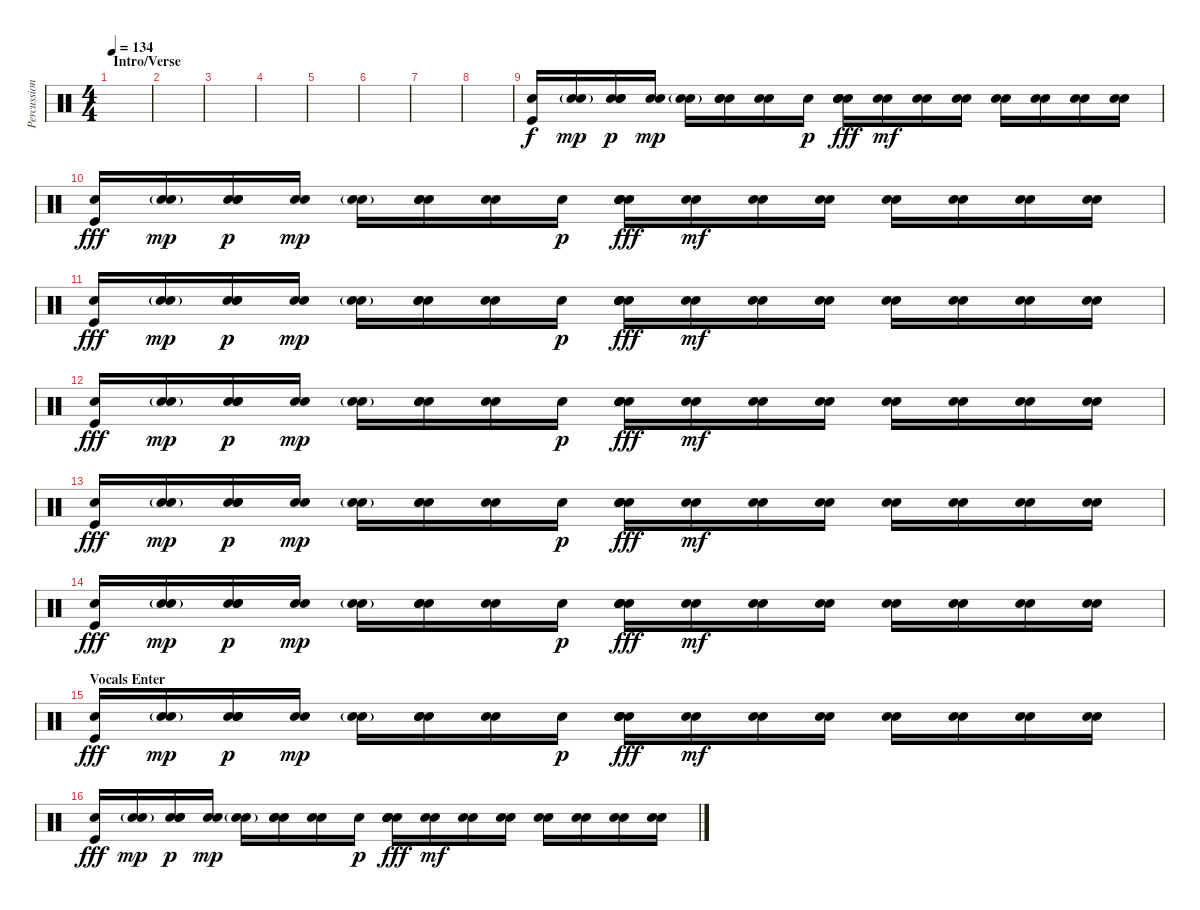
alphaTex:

\track ("Percussion" "Percussion") {instrument percussion}
\staff {score}
\articulation defaults
\ts (4 4)
\section ("" "Intro/Verse")
\tempo 134
\clef neutral
\ks c
|
|
|
|
|
|
|
|
("Electric Snare (hit)" "Kick (hit)").16 ("Electric Snare (hit)" "Electric Snare (hit)"{g}).16{dy mp} ("Electric Snare (hit)" "Electric Snare (hit)" "Snare (hit) 2").16{dy p} ("Electric Snare (hit)" "Snare (hit) 2").16{dy mp} ("Electric Snare (hit)" "Electric Snare (hit)"{g}).16 ("Electric Snare (hit)" "Electric Snare (hit)" "Snare (hit) 2").16 ("Electric Snare (hit)" "Snare (hit) 2").16 "Electric Snare (hit)".16{dy p} ("Electric Snare (hit)" "Snare (hit) 2" "Snare (hit) 2" "Snare (hit) 2").16{dy fff} ("Electric Snare (hit)" "Snare (hit) 2").16{dy mf} ("Electric Snare (hit)" "Snare (hit) 2").16 ("Electric Snare (hit)" "Snare (hit) 2").16 ("Electric Snare (hit)" "Snare (hit) 2").16 ("Electric Snare (hit)" "Snare (hit) 2").16 ("Electric Snare (hit)" "Snare (hit) 2").16 ("Electric Snare (hit)" "Snare (hit) 2").16 |
("Electric Snare (hit)" "Kick (hit)").16{dy fff} ("Electric Snare (hit)" "Electric Snare (hit)"{g}).16{dy mp} ("Electric Snare (hit)" "Electric Snare (hit)" "Snare (hit) 2").16{dy p} ("Electric Snare (hit)" "Snare (hit) 2").16{dy mp} ("Electric Snare (hit)" "Electric Snare (hit)"{g}).16 ("Electric Snare (hit)" "Electric Snare (hit)" "Snare (hit) 2").16 ("Electric Snare (hit)" "Snare (hit) 2").16 "Electric Snare (hit)".16{dy p} ("Electric Snare (hit)" "Snare (hit) 2" "Snare (hit) 2" "Snare (hit) 2").16{dy fff} ("Electric Snare (hit)" "Snare (hit) 2").16{dy mf} ("Electric Snare (hit)" "Snare (hit) 2").16 ("Electric Snare (hit)" "Snare (hit) 2").16 ("Electric Snare (hit)" "Snare (hit) 2").16 ("Electric Snare (hit)" "Snare (hit) 2").16 ("Electric Snare (hit)" "Snare (hit) 2").16 ("Electric Snare (hit)" "Snare (hit) 2").16 |
("Electric Snare (hit)" "Kick (hit)").16{dy fff} ("Electric Snare (hit)" "Electric Snare (hit)"{g}).16{dy mp} ("Electric Snare (hit)" "Electric Snare (hit)" "Snare (hit) 2").16{dy p} ("Electric Snare (hit)" "Snare (hit) 2").16{dy mp} ("Electric Snare (hit)" "Electric Snare (hit)"{g}).16 ("Electric Snare (hit)" "Electric Snare (hit)" "Snare (hit) 2").16 ("Electric Snare (hit)" "Snare (hit) 2").16 "Electric Snare (hit)".16{dy p} ("Electric Snare (hit)" "Snare (hit) 2" "Snare (hit) 2" "Snare (hit) 2").16{dy fff} ("Electric Snare (hit)" "Snare (hit) 2").16{dy mf} ("Electric Snare (hit)" "Snare (hit) 2").16 ("Electric Snare (hit)" "Snare (hit) 2").16 ("Electric Snare (hit)" "Snare (hit) 2").16 ("Electric Snare (hit)" "Snare (hit) 2").16 ("Electric Snare (hit)" "Snare (hit) 2").16 ("Electric Snare (hit)" "Snare (hit) 2").16 |
("Electric Snare (hit)" "Kick (hit)").16{dy fff} ("Electric Snare (hit)" "Electric Snare (hit)"{g}).16{dy mp} ("Electric Snare (hit)" "Electric Snare (hit)" "Snare (hit) 2").16{dy p} ("Electric Snare (hit)" "Snare (hit) 2").16{dy mp} ("Electric Snare (hit)" "Electric Snare (hit)"{g}).16 ("Electric Snare (hit)" "Electric Snare (hit)" "Snare (hit) 2").16 ("Electric Snare (hit)" "Snare (hit) 2").16 "Electric Snare (hit)".16{dy p} ("Electric Snare (hit)" "Snare (hit) 2" "Snare (hit) 2" "Snare (hit) 2").16{dy fff} ("Electric Snare (hit)" "Snare (hit) 2").16{dy mf} ("Electric Snare (hit)" "Snare (hit) 2").16 ("Electric Snare (hit)" "Snare (hit) 2").16 ("Electric Snare (hit)" "Snare (hit) 2").16 ("Electric Snare (hit)" "Snare (hit) 2").16 ("Electric Snare (hit)" "Snare (hit) 2").16 ("Electric Snare (hit)" "Snare (hit) 2").16 |
("Electric Snare (hit)" "Kick (hit)").16{dy fff} ("Electric Snare (hit)" "Electric Snare (hit)"{g}).16{dy mp} ("Electric Snare (hit)" "Electric Snare (hit)" "Snare (hit) 2").16{dy p} ("Electric Snare (hit)" "Snare (hit) 2").16{dy mp} ("Electric Snare (hit)" "Electric Snare (hit)"{g}).16 ("Electric Snare (hit)" "Electric Snare (hit)" "Snare (hit) 2").16 ("Electric Snare (hit)" "Snare (hit) 2").16 "Electric Snare (hit)".16{dy p} ("Electric Snare (hit)" "Snare (hit) 2" "Snare (hit) 2" "Snare (hit) 2").16{dy fff} ("Electric Snare (hit)" "Snare (hit) 2").16{dy mf} ("Electric Snare (hit)" "Snare (hit) 2").16 ("Electric Snare (hit)" "Snare (hit) 2").16 ("Electric Snare (hit)" "Snare (hit) 2").16 ("Electric Snare (hit)" "Snare (hit) 2").16 ("Electric Snare (hit)" "Snare (hit) 2").16 ("Electric Snare (hit)" "Snare (hit) 2").16 |
("Electric Snare (hit)" "Kick (hit)").16{dy fff} ("Electric Snare (hit)" "Electric Snare (hit)"{g}).16{dy mp} ("Electric Snare (hit)" "Electric Snare (hit)" "Snare (hit) 2").16{dy p} ("Electric Snare (hit)" "Snare (hit) 2").16{dy mp} ("Electric Snare (hit)" "Electric Snare (hit)"{g}).16 ("Electric Snare (hit)" "Electric Snare (hit)" "Snare (hit) 2").16 ("Electric Snare (hit)" "Snare (hit) 2").16 "Electric Snare (hit)".16{dy p} ("Electric Snare (hit)" "Snare (hit) 2" "Snare (hit) 2" "Snare (hit) 2").16{dy fff} ("Electric Snare (hit)" "Snare (hit) 2").16{dy mf} ("Electric Snare (hit)" "Snare (hit) 2").16 ("Electric Snare (hit)" "Snare (hit) 2").16 ("Electric Snare (hit)" "Snare (hit) 2").16 ("Electric Snare (hit)" "Snare (hit) 2").16 ("Electric Snare (hit)" "Snare (hit) 2").16 ("Electric Snare (hit)" "Snare (hit) 2").16 |
\section ("" "Vocals Enter")
("Electric Snare (hit)" "Kick (hit)").16{dy fff} ("Electric Snare (hit)" "Electric Snare (hit)"{g}).16{dy mp} ("Electric Snare (hit)" "Electric Snare (hit)" "Snare (hit) 2").16{dy p} ("Electric Snare (hit)" "Snare (hit) 2").16{dy mp} ("Electric Snare (hit)" "Electric Snare (hit)"{g}).16 ("Electric Snare (hit)" "Electric Snare (hit)" "Snare (hit) 2").16 ("Electric Snare (hit)" "Snare (hit) 2").16 "Electric Snare (hit)".16{dy p} ("Electric Snare (hit)" "Snare (hit) 2" "Snare (hit) 2" "Snare (hit) 2").16{dy fff} ("Electric Snare (hit)" "Snare (hit) 2").16{dy mf} ("Electric Snare (hit)" "Snare (hit) 2").16 ("Electric Snare (hit)" "Snare (hit) 2").16 ("Electric Snare (hit)" "Snare (hit) 2").16 ("Electric Snare (hit)" "Snare (hit) 2").16 ("Electric Snare (hit)" "Snare (hit) 2").16 ("Electric Snare (hit)" "Snare (hit) 2").16 |
("Electric Snare (hit)" "Kick (hit)").16{dy fff} ("Electric Snare (hit)" "Electric Snare (hit)"{g}).16{dy mp} ("Electric Snare (hit)" "Electric Snare (hit)" "Snare (hit) 2").16{dy p} ("Electric Snare (hit)" "Snare (hit) 2").16{dy mp} ("Electric Snare (hit)" "Electric Snare (hit)"{g}).16 ("Electric Snare (hit)" "Electric Snare (hit)" "Snare (hit) 2").16 ("Electric Snare (hit)" "Snare (hit) 2").16 "Electric Snare (hit)".16{dy p} ("Electric Snare (hit)" "Snare (hit) 2" "Snare (hit) 2" "Snare (hit) 2").16{dy fff} ("Electric Snare (hit)" "Snare (hit) 2").16{dy mf} ("Electric Snare (hit)" "Snare (hit) 2").16 ("Electric Snare (hit)" "Snare (hit) 2").16 ("Electric Snare (hit)" "Snare (hit) 2").16 ("Electric Snare (hit)" "Snare (hit) 2").16 ("Electric Snare (hit)" "Snare (hit) 2").16 ("Electric Snare (hit)" "Snare (hit) 2").16
